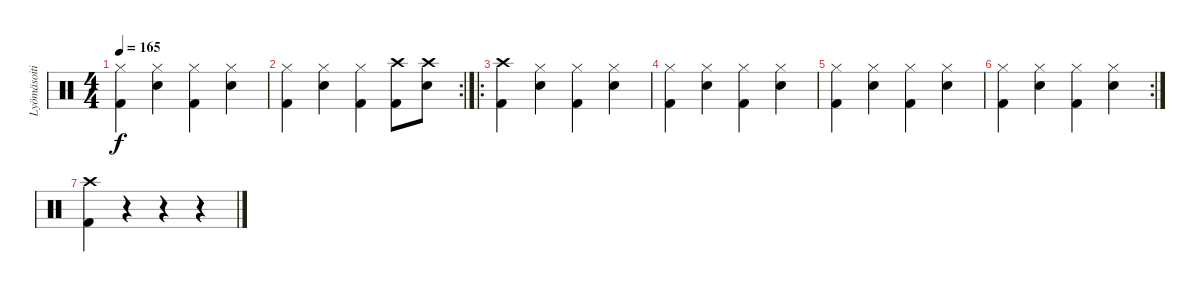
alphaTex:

\track ("Lyömäsoitin" "Lyömäsoiti") {instrument percussion}
\staff {score}
\articulation defaults
\ts (4 4)
\tempo 165
\clef neutral
\ks c
("Hi-Hat (closed)" "Kick (hit) 2").4{dy f} ("Hi-Hat (closed)" "Snare (hit) 2").4 ("Hi-Hat (closed)" "Kick (hit) 2").4 ("Hi-Hat (closed)" "Snare (hit) 2").4 |
\rc 2
("Hi-Hat (closed)" "Kick (hit) 2").4 ("Hi-Hat (closed)" "Snare (hit) 2").4 ("Hi-Hat (closed)" "Kick (hit) 2").4 ("Crash high (hit)" "Kick (hit) 2").8 ("Crash high (hit)" "Snare (hit) 2").8 |
\ro
("Crash high (hit)" "Kick (hit) 2").4 ("Hi-Hat (closed)" "Snare (hit) 2").4 ("Hi-Hat (closed)" "Kick (hit) 2").4 ("Hi-Hat (closed)" "Snare (hit) 2").4 |
("Hi-Hat (closed)" "Kick (hit) 2").4 ("Hi-Hat (closed)" "Snare (hit) 2").4 ("Hi-Hat (closed)" "Kick (hit) 2").4 ("Hi-Hat (closed)" "Snare (hit) 2").4 |
("Hi-Hat (closed)" "Kick (hit) 2").4 ("Hi-Hat (closed)" "Snare (hit) 2").4 ("Hi-Hat (closed)" "Kick (hit) 2").4 ("Hi-Hat (closed)" "Snare (hit) 2").4 |
\rc 2
("Hi-Hat (closed)" "Kick (hit) 2").4 ("Hi-Hat (closed)" "Snare (hit) 2").4 ("Hi-Hat (closed)" "Kick (hit) 2").4 ("Hi-Hat (closed)" "Snare (hit) 2").4 |
("Crash high (hit)" "Kick (hit) 2").4 r.4 r.4 r.4
